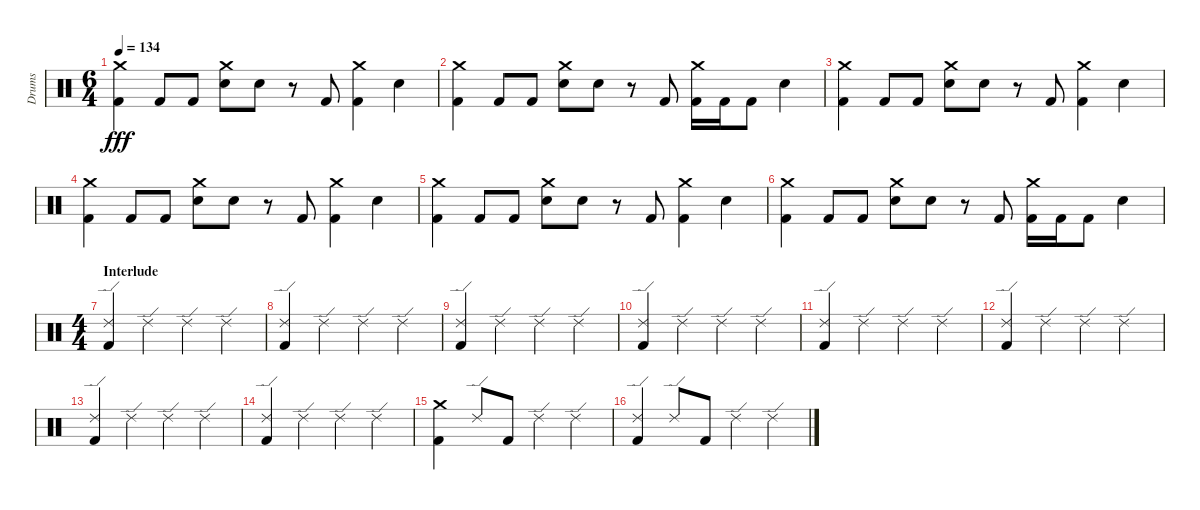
\track ("Drums" "Drums") {instrument percussion}
\staff {score}
\articulation defaults
\ts (6 4)
\tempo 134
\clef neutral
\ks c
("Crash medium (hit)" "Kick (hit) 2").4{dy fff} "Kick (hit) 2".8 "Kick (hit) 2".8 ("Crash medium (hit)" "Electric Snare (hit)").8 "Electric Snare (hit)".8 r.8 "Kick (hit) 2".8 ("Crash medium (hit)" "Kick (hit) 2").4 "Electric Snare (hit)".4 |
("Crash medium (hit)" "Kick (hit) 2").4 "Kick (hit) 2".8 "Kick (hit) 2".8 ("Crash medium (hit)" "Electric Snare (hit)").8 "Electric Snare (hit)".8 r.8 "Kick (hit) 2".8 ("Crash medium (hit)" "Kick (hit) 2").16 "Kick (hit) 2".16 "Kick (hit) 2".8 "Electric Snare (hit)".4 |
("Crash medium (hit)" "Kick (hit) 2").4 "Kick (hit) 2".8 "Kick (hit) 2".8 ("Crash medium (hit)" "Electric Snare (hit)").8 "Electric Snare (hit)".8 r.8 "Kick (hit) 2".8 ("Crash medium (hit)" "Kick (hit) 2").4 "Electric Snare (hit)".4 |
("Crash medium (hit)" "Kick (hit) 2").4 "Kick (hit) 2".8 "Kick (hit) 2".8 ("Crash medium (hit)" "Electric Snare (hit)").8 "Electric Snare (hit)".8 r.8 "Kick (hit) 2".8 ("Crash medium (hit)" "Kick (hit) 2").4 "Electric Snare (hit)".4 |
("Crash medium (hit)" "Kick (hit) 2").4 "Kick (hit) 2".8 "Kick (hit) 2".8 ("Crash medium (hit)" "Electric Snare (hit)").8 "Electric Snare (hit)".8 r.8 "Kick (hit) 2".8 ("Crash medium (hit)" "Kick (hit) 2").4 "Electric Snare (hit)".4 |
("Crash medium (hit)" "Kick (hit) 2").4 "Kick (hit) 2".8 "Kick (hit) 2".8 ("Crash medium (hit)" "Electric Snare (hit)").8 "Electric Snare (hit)".8 r.8 "Kick (hit) 2".8 ("Crash medium (hit)" "Kick (hit) 2").16 "Kick (hit) 2".16 "Kick (hit) 2".8 "Electric Snare (hit)".4 |
\ts (4 4)
\section ("" "Interlude")
("Ride (edge) 2" "Kick (hit) 2").4 "Ride (edge) 2".4 "Ride (edge) 2".4 "Ride (edge) 2".4 |
("Ride (edge) 2" "Kick (hit) 2").4 "Ride (edge) 2".4 "Ride (edge) 2".4 "Ride (edge) 2".4 |
("Ride (edge) 2" "Kick (hit) 2").4 "Ride (edge) 2".4 "Ride (edge) 2".4 "Ride (edge) 2".4 |
("Ride (edge) 2" "Kick (hit) 2").4 "Ride (edge) 2".4 "Ride (edge) 2".4 "Ride (edge) 2".4 |
("Ride (edge) 2" "Kick (hit) 2").4 "Ride (edge) 2".4 "Ride (edge) 2".4 "Ride (edge) 2".4 |
("Ride (edge) 2" "Kick (hit) 2").4 "Ride (edge) 2".4 "Ride (edge) 2".4 "Ride (edge) 2".4 |
("Ride (edge) 2" "Kick (hit) 2").4 "Ride (edge) 2".4 "Ride (edge) 2".4 "Ride (edge) 2".4 |
("Ride (edge) 2" "Kick (hit) 2").4 "Ride (edge) 2".4 "Ride (edge) 2".4 "Ride (edge) 2".4 |
("Crash medium (hit)" "Kick (hit) 2").4 "Ride (edge) 2".8 "Kick (hit) 2".8 "Ride (edge) 2".4 "Ride (edge) 2".4 |
("Ride (edge) 2" "Kick (hit) 2").4 "Ride (edge) 2".8 "Kick (hit) 2".8 "Ride (edge) 2".4 "Ride (edge) 2".4
